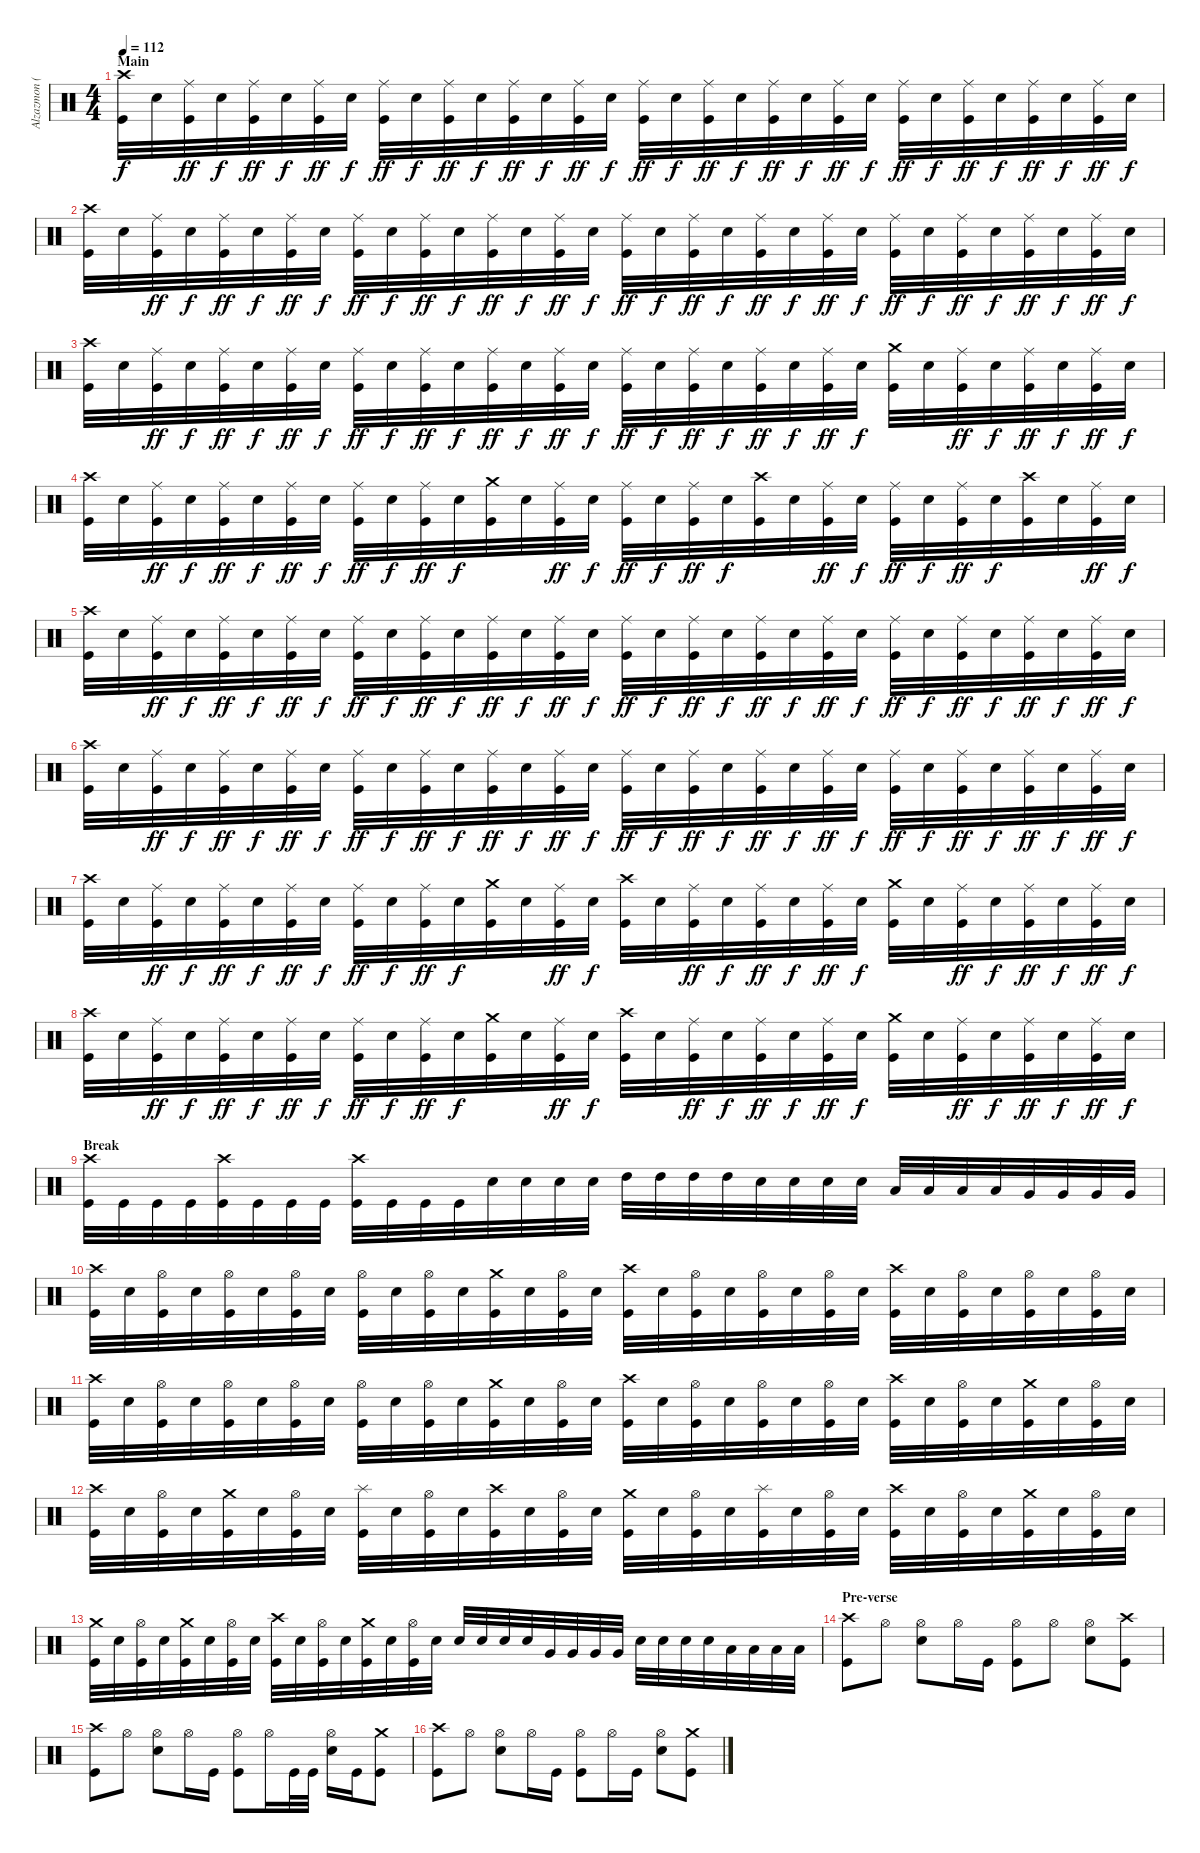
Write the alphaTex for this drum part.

\track ("Alzazmon (Drums)" "Alzazmon (") {instrument percussion}
\staff {score}
\articulation defaults
\ts (4 4)
\section ("" "Main")
\tempo 112
\clef neutral
\ks c
("Crash high (hit)" "Kick (hit)").32{dy f} "Electric Snare (hit)".32 ("Ride (middle)" "Kick (hit)").32{dy ff} "Electric Snare (hit)".32{dy f} ("Ride (middle)" "Kick (hit)").32{dy ff} "Electric Snare (hit)".32{dy f} ("Ride (middle)" "Kick (hit)").32{dy ff} "Electric Snare (hit)".32{dy f} ("Ride (middle)" "Kick (hit)").32{dy ff} "Electric Snare (hit)".32{dy f} ("Ride (middle)" "Kick (hit)").32{dy ff} "Electric Snare (hit)".32{dy f} ("Ride (middle)" "Kick (hit)").32{dy ff} "Electric Snare (hit)".32{dy f} ("Ride (middle)" "Kick (hit)").32{dy ff} "Electric Snare (hit)".32{dy f} ("Ride (middle)" "Kick (hit)").32{dy ff} "Electric Snare (hit)".32{dy f} ("Ride (middle)" "Kick (hit)").32{dy ff} "Electric Snare (hit)".32{dy f} ("Ride (middle)" "Kick (hit)").32{dy ff} "Electric Snare (hit)".32{dy f} ("Ride (middle)" "Kick (hit)").32{dy ff} "Electric Snare (hit)".32{dy f} ("Ride (middle)" "Kick (hit)").32{dy ff} "Electric Snare (hit)".32{dy f} ("Ride (middle)" "Kick (hit)").32{dy ff} "Electric Snare (hit)".32{dy f} ("Ride (middle)" "Kick (hit)").32{dy ff} "Electric Snare (hit)".32{dy f} ("Ride (middle)" "Kick (hit)").32{dy ff} "Electric Snare (hit)".32{dy f} |
("Crash high (hit)" "Kick (hit)").32 "Electric Snare (hit)".32 ("Ride (middle)" "Kick (hit)").32{dy ff} "Electric Snare (hit)".32{dy f} ("Ride (middle)" "Kick (hit)").32{dy ff} "Electric Snare (hit)".32{dy f} ("Ride (middle)" "Kick (hit)").32{dy ff} "Electric Snare (hit)".32{dy f} ("Ride (middle)" "Kick (hit)").32{dy ff} "Electric Snare (hit)".32{dy f} ("Ride (middle)" "Kick (hit)").32{dy ff} "Electric Snare (hit)".32{dy f} ("Ride (middle)" "Kick (hit)").32{dy ff} "Electric Snare (hit)".32{dy f} ("Ride (middle)" "Kick (hit)").32{dy ff} "Electric Snare (hit)".32{dy f} ("Ride (middle)" "Kick (hit)").32{dy ff} "Electric Snare (hit)".32{dy f} ("Ride (middle)" "Kick (hit)").32{dy ff} "Electric Snare (hit)".32{dy f} ("Ride (middle)" "Kick (hit)").32{dy ff} "Electric Snare (hit)".32{dy f} ("Ride (middle)" "Kick (hit)").32{dy ff} "Electric Snare (hit)".32{dy f} ("Ride (middle)" "Kick (hit)").32{dy ff} "Electric Snare (hit)".32{dy f} ("Ride (middle)" "Kick (hit)").32{dy ff} "Electric Snare (hit)".32{dy f} ("Ride (middle)" "Kick (hit)").32{dy ff} "Electric Snare (hit)".32{dy f} ("Ride (middle)" "Kick (hit)").32{dy ff} "Electric Snare (hit)".32{dy f} |
("Crash high (hit)" "Kick (hit)").32 "Electric Snare (hit)".32 ("Ride (middle)" "Kick (hit)").32{dy ff} "Electric Snare (hit)".32{dy f} ("Ride (middle)" "Kick (hit)").32{dy ff} "Electric Snare (hit)".32{dy f} ("Ride (middle)" "Kick (hit)").32{dy ff} "Electric Snare (hit)".32{dy f} ("Ride (middle)" "Kick (hit)").32{dy ff} "Electric Snare (hit)".32{dy f} ("Ride (middle)" "Kick (hit)").32{dy ff} "Electric Snare (hit)".32{dy f} ("Ride (middle)" "Kick (hit)").32{dy ff} "Electric Snare (hit)".32{dy f} ("Ride (middle)" "Kick (hit)").32{dy ff} "Electric Snare (hit)".32{dy f} ("Ride (middle)" "Kick (hit)").32{dy ff} "Electric Snare (hit)".32{dy f} ("Ride (middle)" "Kick (hit)").32{dy ff} "Electric Snare (hit)".32{dy f} ("Ride (middle)" "Kick (hit)").32{dy ff} "Electric Snare (hit)".32{dy f} ("Ride (middle)" "Kick (hit)").32{dy ff} "Electric Snare (hit)".32{dy f} ("Crash medium (hit)" "Kick (hit)").32 "Electric Snare (hit)".32 ("Ride (middle)" "Kick (hit)").32{dy ff} "Electric Snare (hit)".32{dy f} ("Ride (middle)" "Kick (hit)").32{dy ff} "Electric Snare (hit)".32{dy f} ("Ride (middle)" "Kick (hit)").32{dy ff} "Electric Snare (hit)".32{dy f} |
("Crash high (hit)" "Kick (hit)").32 "Electric Snare (hit)".32 ("Ride (middle)" "Kick (hit)").32{dy ff} "Electric Snare (hit)".32{dy f} ("Ride (middle)" "Kick (hit)").32{dy ff} "Electric Snare (hit)".32{dy f} ("Ride (middle)" "Kick (hit)").32{dy ff} "Electric Snare (hit)".32{dy f} ("Ride (middle)" "Kick (hit)").32{dy ff} "Electric Snare (hit)".32{dy f} ("Ride (middle)" "Kick (hit)").32{dy ff} "Electric Snare (hit)".32{dy f} ("Crash medium (hit)" "Kick (hit)").32 "Electric Snare (hit)".32 ("Ride (middle)" "Kick (hit)").32{dy ff} "Electric Snare (hit)".32{dy f} ("Ride (middle)" "Kick (hit)").32{dy ff} "Electric Snare (hit)".32{dy f} ("Ride (middle)" "Kick (hit)").32{dy ff} "Electric Snare (hit)".32{dy f} ("Crash high (hit)" "Kick (hit)").32 "Electric Snare (hit)".32 ("Ride (middle)" "Kick (hit)").32{dy ff} "Electric Snare (hit)".32{dy f} ("Ride (middle)" "Kick (hit)").32{dy ff} "Electric Snare (hit)".32{dy f} ("Ride (middle)" "Kick (hit)").32{dy ff} "Electric Snare (hit)".32{dy f} ("Crash high (hit)" "Kick (hit)").32 "Electric Snare (hit)".32 ("Ride (middle)" "Kick (hit)").32{dy ff} "Electric Snare (hit)".32{dy f} |
("Crash high (hit)" "Kick (hit)").32 "Electric Snare (hit)".32 ("Ride (middle)" "Kick (hit)").32{dy ff} "Electric Snare (hit)".32{dy f} ("Ride (middle)" "Kick (hit)").32{dy ff} "Electric Snare (hit)".32{dy f} ("Ride (middle)" "Kick (hit)").32{dy ff} "Electric Snare (hit)".32{dy f} ("Ride (middle)" "Kick (hit)").32{dy ff} "Electric Snare (hit)".32{dy f} ("Ride (middle)" "Kick (hit)").32{dy ff} "Electric Snare (hit)".32{dy f} ("Ride (middle)" "Kick (hit)").32{dy ff} "Electric Snare (hit)".32{dy f} ("Ride (middle)" "Kick (hit)").32{dy ff} "Electric Snare (hit)".32{dy f} ("Ride (middle)" "Kick (hit)").32{dy ff} "Electric Snare (hit)".32{dy f} ("Ride (middle)" "Kick (hit)").32{dy ff} "Electric Snare (hit)".32{dy f} ("Ride (middle)" "Kick (hit)").32{dy ff} "Electric Snare (hit)".32{dy f} ("Ride (middle)" "Kick (hit)").32{dy ff} "Electric Snare (hit)".32{dy f} ("Ride (middle)" "Kick (hit)").32{dy ff} "Electric Snare (hit)".32{dy f} ("Ride (middle)" "Kick (hit)").32{dy ff} "Electric Snare (hit)".32{dy f} ("Ride (middle)" "Kick (hit)").32{dy ff} "Electric Snare (hit)".32{dy f} ("Ride (middle)" "Kick (hit)").32{dy ff} "Electric Snare (hit)".32{dy f} |
("Crash high (hit)" "Kick (hit)").32 "Electric Snare (hit)".32 ("Ride (middle)" "Kick (hit)").32{dy ff} "Electric Snare (hit)".32{dy f} ("Ride (middle)" "Kick (hit)").32{dy ff} "Electric Snare (hit)".32{dy f} ("Ride (middle)" "Kick (hit)").32{dy ff} "Electric Snare (hit)".32{dy f} ("Ride (middle)" "Kick (hit)").32{dy ff} "Electric Snare (hit)".32{dy f} ("Ride (middle)" "Kick (hit)").32{dy ff} "Electric Snare (hit)".32{dy f} ("Ride (middle)" "Kick (hit)").32{dy ff} "Electric Snare (hit)".32{dy f} ("Ride (middle)" "Kick (hit)").32{dy ff} "Electric Snare (hit)".32{dy f} ("Ride (middle)" "Kick (hit)").32{dy ff} "Electric Snare (hit)".32{dy f} ("Ride (middle)" "Kick (hit)").32{dy ff} "Electric Snare (hit)".32{dy f} ("Ride (middle)" "Kick (hit)").32{dy ff} "Electric Snare (hit)".32{dy f} ("Ride (middle)" "Kick (hit)").32{dy ff} "Electric Snare (hit)".32{dy f} ("Ride (middle)" "Kick (hit)").32{dy ff} "Electric Snare (hit)".32{dy f} ("Ride (middle)" "Kick (hit)").32{dy ff} "Electric Snare (hit)".32{dy f} ("Ride (middle)" "Kick (hit)").32{dy ff} "Electric Snare (hit)".32{dy f} ("Ride (middle)" "Kick (hit)").32{dy ff} "Electric Snare (hit)".32{dy f} |
("Crash high (hit)" "Kick (hit)").32 "Electric Snare (hit)".32 ("Ride (middle)" "Kick (hit)").32{dy ff} "Electric Snare (hit)".32{dy f} ("Ride (middle)" "Kick (hit)").32{dy ff} "Electric Snare (hit)".32{dy f} ("Ride (middle)" "Kick (hit)").32{dy ff} "Electric Snare (hit)".32{dy f} ("Ride (middle)" "Kick (hit)").32{dy ff} "Electric Snare (hit)".32{dy f} ("Ride (middle)" "Kick (hit)").32{dy ff} "Electric Snare (hit)".32{dy f} ("Crash medium (hit)" "Kick (hit)").32 "Electric Snare (hit)".32 ("Ride (middle)" "Kick (hit)").32{dy ff} "Electric Snare (hit)".32{dy f} ("Crash high (hit)" "Kick (hit)").32 "Electric Snare (hit)".32 ("Ride (middle)" "Kick (hit)").32{dy ff} "Electric Snare (hit)".32{dy f} ("Ride (middle)" "Kick (hit)").32{dy ff} "Electric Snare (hit)".32{dy f} ("Ride (middle)" "Kick (hit)").32{dy ff} "Electric Snare (hit)".32{dy f} ("Crash medium (hit)" "Kick (hit)").32 "Electric Snare (hit)".32 ("Ride (middle)" "Kick (hit)").32{dy ff} "Electric Snare (hit)".32{dy f} ("Ride (middle)" "Kick (hit)").32{dy ff} "Electric Snare (hit)".32{dy f} ("Ride (middle)" "Kick (hit)").32{dy ff} "Electric Snare (hit)".32{dy f} |
("Crash high (hit)" "Kick (hit)").32 "Electric Snare (hit)".32 ("Ride (middle)" "Kick (hit)").32{dy ff} "Electric Snare (hit)".32{dy f} ("Ride (middle)" "Kick (hit)").32{dy ff} "Electric Snare (hit)".32{dy f} ("Ride (middle)" "Kick (hit)").32{dy ff} "Electric Snare (hit)".32{dy f} ("Ride (middle)" "Kick (hit)").32{dy ff} "Electric Snare (hit)".32{dy f} ("Ride (middle)" "Kick (hit)").32{dy ff} "Electric Snare (hit)".32{dy f} ("Crash medium (hit)" "Kick (hit)").32 "Electric Snare (hit)".32 ("Ride (middle)" "Kick (hit)").32{dy ff} "Electric Snare (hit)".32{dy f} ("Crash high (hit)" "Kick (hit)").32 "Electric Snare (hit)".32 ("Ride (middle)" "Kick (hit)").32{dy ff} "Electric Snare (hit)".32{dy f} ("Ride (middle)" "Kick (hit)").32{dy ff} "Electric Snare (hit)".32{dy f} ("Ride (middle)" "Kick (hit)").32{dy ff} "Electric Snare (hit)".32{dy f} ("Crash medium (hit)" "Kick (hit)").32 "Electric Snare (hit)".32 ("Ride (middle)" "Kick (hit)").32{dy ff} "Electric Snare (hit)".32{dy f} ("Ride (middle)" "Kick (hit)").32{dy ff} "Electric Snare (hit)".32{dy f} ("Ride (middle)" "Kick (hit)").32{dy ff} "Electric Snare (hit)".32{dy f} |
\section ("" "Break")
("Crash high (hit)" "Kick (hit)").32 "Kick (hit)".32 "Kick (hit)".32 "Kick (hit)".32 ("Crash high (hit)" "Kick (hit)").32 "Kick (hit)".32 "Kick (hit)".32 "Kick (hit)".32 ("Crash high (hit)" "Kick (hit)").32 "Kick (hit)".32 "Kick (hit)".32 "Kick (hit)".32 "Electric Snare (hit)".32 "Electric Snare (hit)".32 "Electric Snare (hit)".32 "Electric Snare (hit)".32 "High Tom (hit)".32 "High Tom (hit)".32 "High Tom (hit)".32 "High Tom (hit)".32 "Electric Snare (hit)".32 "Electric Snare (hit)".32 "Electric Snare (hit)".32 "Electric Snare (hit)".32 "Low Tom (hit)".32 "Low Tom (hit)".32 "Low Tom (hit)".32 "Low Tom (hit)".32 "Very Low Tom (hit)".32 "Very Low Tom (hit)".32 "Very Low Tom (hit)".32 "Very Low Tom (hit)".32 |
("Crash high (hit)" "Kick (hit)").32 "Electric Snare (hit)".32 ("Hi-Hat (open)" "Kick (hit)").32 "Electric Snare (hit)".32 ("Hi-Hat (open)" "Kick (hit)").32 "Electric Snare (hit)".32 ("Hi-Hat (open)" "Kick (hit)").32 "Electric Snare (hit)".32 ("Hi-Hat (open)" "Kick (hit)").32 "Electric Snare (hit)".32 ("Hi-Hat (open)" "Kick (hit)").32 "Electric Snare (hit)".32 ("Crash medium (hit)" "Kick (hit)").32 "Electric Snare (hit)".32 ("Hi-Hat (open)" "Kick (hit)").32 "Electric Snare (hit)".32 ("Crash high (hit)" "Kick (hit)").32 "Electric Snare (hit)".32 ("Hi-Hat (open)" "Kick (hit)").32 "Electric Snare (hit)".32 ("Hi-Hat (open)" "Kick (hit)").32 "Electric Snare (hit)".32 ("Hi-Hat (open)" "Kick (hit)").32 "Electric Snare (hit)".32 ("Crash high (hit)" "Kick (hit)").32 "Electric Snare (hit)".32 ("Hi-Hat (open)" "Kick (hit)").32 "Electric Snare (hit)".32 ("Hi-Hat (open)" "Kick (hit)").32 "Electric Snare (hit)".32 ("Hi-Hat (open)" "Kick (hit)").32 "Electric Snare (hit)".32 |
("Crash high (hit)" "Kick (hit)").32 "Electric Snare (hit)".32 ("Hi-Hat (open)" "Kick (hit)").32 "Electric Snare (hit)".32 ("Hi-Hat (open)" "Kick (hit)").32 "Electric Snare (hit)".32 ("Hi-Hat (open)" "Kick (hit)").32 "Electric Snare (hit)".32 ("Hi-Hat (open)" "Kick (hit)").32 "Electric Snare (hit)".32 ("Hi-Hat (open)" "Kick (hit)").32 "Electric Snare (hit)".32 ("Crash medium (hit)" "Kick (hit)").32 "Electric Snare (hit)".32 ("Hi-Hat (open)" "Kick (hit)").32 "Electric Snare (hit)".32 ("Crash high (hit)" "Kick (hit)").32 "Electric Snare (hit)".32 ("Hi-Hat (open)" "Kick (hit)").32 "Electric Snare (hit)".32 ("Hi-Hat (open)" "Kick (hit)").32 "Electric Snare (hit)".32 ("Hi-Hat (open)" "Kick (hit)").32 "Electric Snare (hit)".32 ("Crash high (hit)" "Kick (hit)").32 "Electric Snare (hit)".32 ("Hi-Hat (open)" "Kick (hit)").32 "Electric Snare (hit)".32 ("Crash medium (hit)" "Kick (hit)").32 "Electric Snare (hit)".32 ("Hi-Hat (open)" "Kick (hit)").32 "Electric Snare (hit)".32 |
("Crash high (hit)" "Kick (hit)").32 "Electric Snare (hit)".32 ("Hi-Hat (open)" "Kick (hit)").32 "Electric Snare (hit)".32 ("Crash medium (hit)" "Kick (hit)").32 "Electric Snare (hit)".32 ("Hi-Hat (open)" "Kick (hit)").32 "Electric Snare (hit)".32 ("Splash (hit)" "Kick (hit)").32 "Electric Snare (hit)".32 ("Hi-Hat (open)" "Kick (hit)").32 "Electric Snare (hit)".32 ("Crash high (hit)" "Kick (hit)").32 "Electric Snare (hit)".32 ("Hi-Hat (open)" "Kick (hit)").32 "Electric Snare (hit)".32 ("Crash medium (hit)" "Kick (hit)").32 "Electric Snare (hit)".32 ("Hi-Hat (open)" "Kick (hit)").32 "Electric Snare (hit)".32 ("Splash (hit)" "Kick (hit)").32 "Electric Snare (hit)".32 ("Hi-Hat (open)" "Kick (hit)").32 "Electric Snare (hit)".32 ("Crash high (hit)" "Kick (hit)").32 "Electric Snare (hit)".32 ("Hi-Hat (open)" "Kick (hit)").32 "Electric Snare (hit)".32 ("Crash medium (hit)" "Kick (hit)").32 "Electric Snare (hit)".32 ("Hi-Hat (open)" "Kick (hit)").32 "Electric Snare (hit)".32 |
("Crash medium (hit)" "Kick (hit)").32 "Electric Snare (hit)".32 ("Hi-Hat (open)" "Kick (hit)").32 "Electric Snare (hit)".32 ("Crash medium (hit)" "Kick (hit)").32 "Electric Snare (hit)".32 ("Hi-Hat (open)" "Kick (hit)").32 "Electric Snare (hit)".32 ("Crash high (hit)" "Kick (hit)").32 "Electric Snare (hit)".32 ("Hi-Hat (open)" "Kick (hit)").32 "Electric Snare (hit)".32 ("Crash medium (hit)" "Kick (hit)").32 "Electric Snare (hit)".32 ("Hi-Hat (open)" "Kick (hit)").32 "Electric Snare (hit)".32 "Electric Snare (hit)".32 "Electric Snare (hit)".32 "Electric Snare (hit)".32 "Electric Snare (hit)".32 "Very Low Tom (hit)".32 "Very Low Tom (hit)".32 "Very Low Tom (hit)".32 "Very Low Tom (hit)".32 "Electric Snare (hit)".32 "Electric Snare (hit)".32 "Electric Snare (hit)".32 "Electric Snare (hit)".32 "Low Tom (hit)".32 "Low Tom (hit)".32 "Low Tom (hit)".32 "Low Tom (hit)".32 |
\section ("" "Pre-verse")
("Crash high (hit)" "Kick (hit)").8 "Hi-Hat (open)".8 ("Hi-Hat (open)" "Electric Snare (hit)").8 "Hi-Hat (open)".16 "Kick (hit)".16 ("Hi-Hat (open)" "Kick (hit)").8 "Hi-Hat (open)".8 ("Hi-Hat (open)" "Electric Snare (hit)").8 ("Crash high (hit)" "Kick (hit)").8 |
("Crash high (hit)" "Kick (hit)").8 "Hi-Hat (open)".8 ("Hi-Hat (open)" "Electric Snare (hit)").8 "Hi-Hat (open)".16 "Kick (hit)".16 ("Hi-Hat (open)" "Kick (hit)").8 "Hi-Hat (open)".16 "Kick (hit)".32 "Kick (hit)".32 ("Hi-Hat (open)" "Electric Snare (hit)").16 "Kick (hit)".16 ("Crash medium (hit)" "Kick (hit)").8 |
("Crash high (hit)" "Kick (hit)").8 "Hi-Hat (open)".8 ("Hi-Hat (open)" "Electric Snare (hit)").8 "Hi-Hat (open)".16 "Kick (hit)".16 ("Hi-Hat (open)" "Kick (hit)").8 "Hi-Hat (open)".16 "Kick (hit)".16 ("Hi-Hat (open)" "Electric Snare (hit)").8 ("Crash medium (hit)" "Kick (hit)").8
